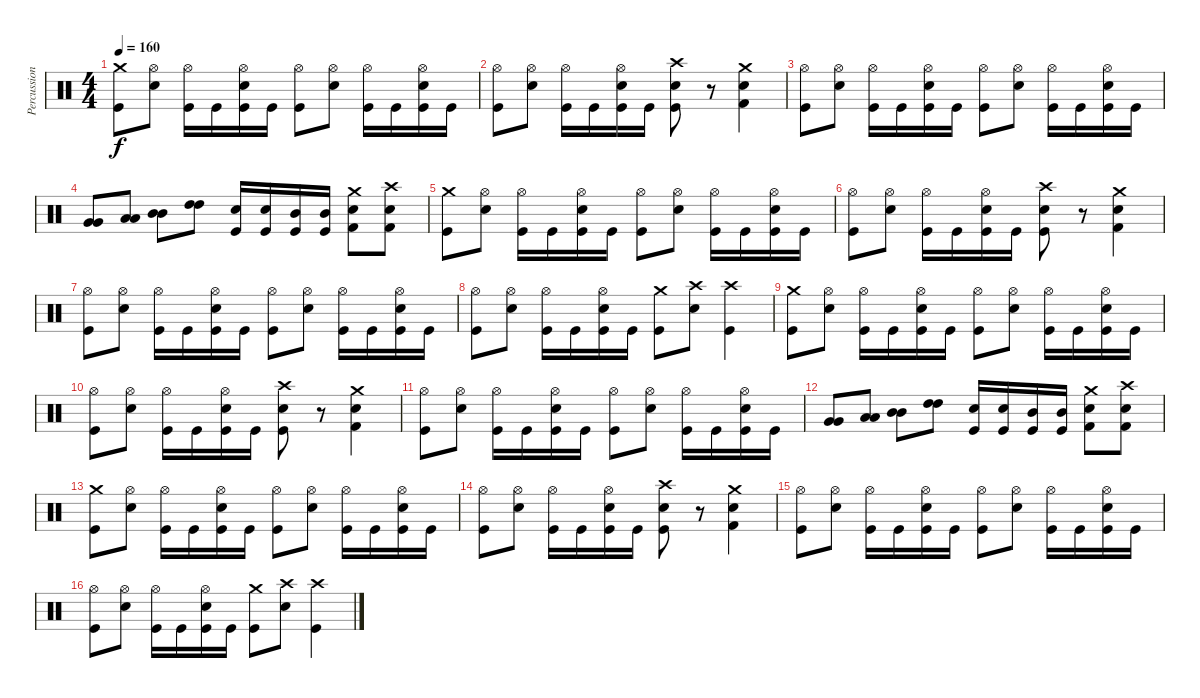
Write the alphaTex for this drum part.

\track ("Percussions" "Percussion") {instrument percussion}
\staff {score}
\articulation defaults
\ts (4 4)
\tempo 160
\clef neutral
\ks c
("Kick (hit)" "Crash medium (hit)").8{dy f} ("Snare (hit) 2" "Hi-Hat (open)").8 ("Kick (hit)" "Hi-Hat (open)").16 "Kick (hit)".16 ("Kick (hit)" "Snare (hit) 2" "Hi-Hat (open)").16 "Kick (hit)".16 ("Kick (hit)" "Hi-Hat (open)").8 ("Snare (hit) 2" "Hi-Hat (open)").8 ("Kick (hit)" "Hi-Hat (open)").16 "Kick (hit)".16 ("Kick (hit)" "Snare (hit) 2" "Hi-Hat (open)").16 "Kick (hit)".16 |
("Kick (hit)" "Hi-Hat (open)").8 ("Snare (hit) 2" "Hi-Hat (open)").8 ("Kick (hit)" "Hi-Hat (open)").16 "Kick (hit)".16 ("Kick (hit)" "Snare (hit) 2" "Hi-Hat (open)").16 "Kick (hit)".16 ("Kick (hit)" "Snare (hit) 2" "Crash high (hit)").8 r.8 ("Kick (hit) 2" "Electric Snare (hit)" "Crash medium (hit)").4 |
("Kick (hit)" "Hi-Hat (open)").8 ("Snare (hit) 2" "Hi-Hat (open)").8 ("Kick (hit)" "Hi-Hat (open)").16 "Kick (hit)".16 ("Kick (hit)" "Snare (hit) 2" "Hi-Hat (open)").16 "Kick (hit)".16 ("Kick (hit)" "Hi-Hat (open)").8 ("Snare (hit) 2" "Hi-Hat (open)").8 ("Kick (hit)" "Hi-Hat (open)").16 "Kick (hit)".16 ("Kick (hit)" "Snare (hit) 2" "Hi-Hat (open)").16 "Kick (hit)".16 |
("Very Low Tom (hit)" "Very Low Tom (hit)").8 ("Low Tom (hit)" "Low Tom (hit)").8 ("Mid Tom (hit)" "Mid Tom (hit)").8 ("High Tom (hit)" "High Tom (hit)").8 ("Snare (hit) 2" "Kick (hit)").16 ("Snare (hit) 2" "Kick (hit)").16 ("Mid Tom (hit)" "Kick (hit)").16 ("Mid Tom (hit)" "Kick (hit)").16 ("Crash medium (hit)" "Electric Snare (hit)" "Kick (hit) 2").8 ("Crash high (hit)" "Snare (hit) 2" "Kick (hit) 2").8 |
("Kick (hit)" "Crash medium (hit)").8 ("Snare (hit) 2" "Hi-Hat (open)").8 ("Kick (hit)" "Hi-Hat (open)").16 "Kick (hit)".16 ("Kick (hit)" "Snare (hit) 2" "Hi-Hat (open)").16 "Kick (hit)".16 ("Kick (hit)" "Hi-Hat (open)").8 ("Snare (hit) 2" "Hi-Hat (open)").8 ("Kick (hit)" "Hi-Hat (open)").16 "Kick (hit)".16 ("Kick (hit)" "Snare (hit) 2" "Hi-Hat (open)").16 "Kick (hit)".16 |
("Kick (hit)" "Hi-Hat (open)").8 ("Snare (hit) 2" "Hi-Hat (open)").8 ("Kick (hit)" "Hi-Hat (open)").16 "Kick (hit)".16 ("Kick (hit)" "Snare (hit) 2" "Hi-Hat (open)").16 "Kick (hit)".16 ("Kick (hit)" "Snare (hit) 2" "Crash high (hit)").8 r.8 ("Kick (hit) 2" "Electric Snare (hit)" "Crash medium (hit)").4 |
("Kick (hit)" "Hi-Hat (open)").8 ("Snare (hit) 2" "Hi-Hat (open)").8 ("Kick (hit)" "Hi-Hat (open)").16 "Kick (hit)".16 ("Kick (hit)" "Snare (hit) 2" "Hi-Hat (open)").16 "Kick (hit)".16 ("Kick (hit)" "Hi-Hat (open)").8 ("Snare (hit) 2" "Hi-Hat (open)").8 ("Kick (hit)" "Hi-Hat (open)").16 "Kick (hit)".16 ("Kick (hit)" "Snare (hit) 2" "Hi-Hat (open)").16 "Kick (hit)".16 |
("Kick (hit)" "Hi-Hat (open)").8 ("Snare (hit) 2" "Hi-Hat (open)").8 ("Kick (hit)" "Hi-Hat (open)").16 "Kick (hit)".16 ("Kick (hit)" "Snare (hit) 2" "Hi-Hat (open)").16 "Kick (hit)".16 ("Kick (hit)" "Crash medium (hit)").8 ("Snare (hit) 2" "Crash high (hit)").8 ("Kick (hit)" "Crash high (hit)").4 |
("Kick (hit)" "Crash medium (hit)").8 ("Snare (hit) 2" "Hi-Hat (open)").8 ("Kick (hit)" "Hi-Hat (open)").16 "Kick (hit)".16 ("Kick (hit)" "Snare (hit) 2" "Hi-Hat (open)").16 "Kick (hit)".16 ("Kick (hit)" "Hi-Hat (open)").8 ("Snare (hit) 2" "Hi-Hat (open)").8 ("Kick (hit)" "Hi-Hat (open)").16 "Kick (hit)".16 ("Kick (hit)" "Snare (hit) 2" "Hi-Hat (open)").16 "Kick (hit)".16 |
("Kick (hit)" "Hi-Hat (open)").8 ("Snare (hit) 2" "Hi-Hat (open)").8 ("Kick (hit)" "Hi-Hat (open)").16 "Kick (hit)".16 ("Kick (hit)" "Snare (hit) 2" "Hi-Hat (open)").16 "Kick (hit)".16 ("Kick (hit)" "Snare (hit) 2" "Crash high (hit)").8 r.8 ("Kick (hit) 2" "Electric Snare (hit)" "Crash medium (hit)").4 |
("Kick (hit)" "Hi-Hat (open)").8 ("Snare (hit) 2" "Hi-Hat (open)").8 ("Kick (hit)" "Hi-Hat (open)").16 "Kick (hit)".16 ("Kick (hit)" "Snare (hit) 2" "Hi-Hat (open)").16 "Kick (hit)".16 ("Kick (hit)" "Hi-Hat (open)").8 ("Snare (hit) 2" "Hi-Hat (open)").8 ("Kick (hit)" "Hi-Hat (open)").16 "Kick (hit)".16 ("Kick (hit)" "Snare (hit) 2" "Hi-Hat (open)").16 "Kick (hit)".16 |
("Very Low Tom (hit)" "Very Low Tom (hit)").8 ("Low Tom (hit)" "Low Tom (hit)").8 ("Mid Tom (hit)" "Mid Tom (hit)").8 ("High Tom (hit)" "High Tom (hit)").8 ("Snare (hit) 2" "Kick (hit)").16 ("Snare (hit) 2" "Kick (hit)").16 ("Mid Tom (hit)" "Kick (hit)").16 ("Mid Tom (hit)" "Kick (hit)").16 ("Crash medium (hit)" "Electric Snare (hit)" "Kick (hit) 2").8 ("Crash high (hit)" "Snare (hit) 2" "Kick (hit) 2").8 |
("Kick (hit)" "Crash medium (hit)").8 ("Snare (hit) 2" "Hi-Hat (open)").8 ("Kick (hit)" "Hi-Hat (open)").16 "Kick (hit)".16 ("Kick (hit)" "Snare (hit) 2" "Hi-Hat (open)").16 "Kick (hit)".16 ("Kick (hit)" "Hi-Hat (open)").8 ("Snare (hit) 2" "Hi-Hat (open)").8 ("Kick (hit)" "Hi-Hat (open)").16 "Kick (hit)".16 ("Kick (hit)" "Snare (hit) 2" "Hi-Hat (open)").16 "Kick (hit)".16 |
("Kick (hit)" "Hi-Hat (open)").8 ("Snare (hit) 2" "Hi-Hat (open)").8 ("Kick (hit)" "Hi-Hat (open)").16 "Kick (hit)".16 ("Kick (hit)" "Snare (hit) 2" "Hi-Hat (open)").16 "Kick (hit)".16 ("Kick (hit)" "Snare (hit) 2" "Crash high (hit)").8 r.8 ("Kick (hit) 2" "Electric Snare (hit)" "Crash medium (hit)").4 |
("Kick (hit)" "Hi-Hat (open)").8 ("Snare (hit) 2" "Hi-Hat (open)").8 ("Kick (hit)" "Hi-Hat (open)").16 "Kick (hit)".16 ("Kick (hit)" "Snare (hit) 2" "Hi-Hat (open)").16 "Kick (hit)".16 ("Kick (hit)" "Hi-Hat (open)").8 ("Snare (hit) 2" "Hi-Hat (open)").8 ("Kick (hit)" "Hi-Hat (open)").16 "Kick (hit)".16 ("Kick (hit)" "Snare (hit) 2" "Hi-Hat (open)").16 "Kick (hit)".16 |
("Kick (hit)" "Hi-Hat (open)").8 ("Snare (hit) 2" "Hi-Hat (open)").8 ("Kick (hit)" "Hi-Hat (open)").16 "Kick (hit)".16 ("Kick (hit)" "Snare (hit) 2" "Hi-Hat (open)").16 "Kick (hit)".16 ("Kick (hit)" "Crash medium (hit)").8 ("Snare (hit) 2" "Crash high (hit)").8 ("Kick (hit)" "Crash high (hit)").4
